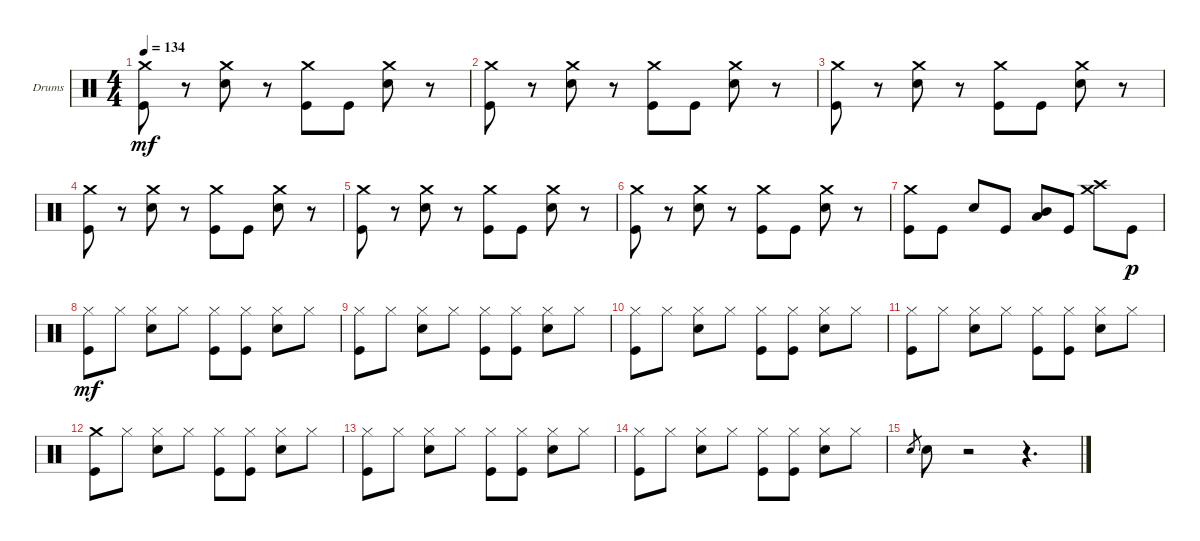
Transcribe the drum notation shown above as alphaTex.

\defaultSystemsLayout 4
\bracketExtendMode groupsimilarinstruments
\firstSystemTrackNameOrientation horizontal
\otherSystemsTrackNameOrientation horizontal
\track ("Drums" "Drums") {instrument percussion}
\staff {score}
\articulation defaults
\ts (4 4)
\tempo 134
\clef neutral
\ks c
("Kick (hit)" "Crash medium (hit)").8{dy mf} r.8 ("Snare (hit) 2" "Crash medium (hit)").8 r.8 ("Kick (hit)" "Crash medium (hit)").8 "Kick (hit)".8 ("Snare (hit) 2" "Crash medium (hit)").8 r.8 |
("Kick (hit)" "Crash medium (hit)").8 r.8 ("Snare (hit) 2" "Crash medium (hit)").8 r.8 ("Kick (hit)" "Crash medium (hit)").8 "Kick (hit)".8 ("Snare (hit) 2" "Crash medium (hit)").8 r.8 |
("Kick (hit)" "Crash medium (hit)").8 r.8 ("Snare (hit) 2" "Crash medium (hit)").8 r.8 ("Kick (hit)" "Crash medium (hit)").8 "Kick (hit)".8 ("Snare (hit) 2" "Crash medium (hit)").8 r.8 |
("Kick (hit)" "Crash medium (hit)").8 r.8 ("Snare (hit) 2" "Crash medium (hit)").8 r.8 ("Kick (hit)" "Crash medium (hit)").8 "Kick (hit)".8 ("Snare (hit) 2" "Crash medium (hit)").8 r.8 |
("Kick (hit)" "Crash medium (hit)").8 r.8 ("Snare (hit) 2" "Crash medium (hit)").8 r.8 ("Kick (hit)" "Crash medium (hit)").8 "Kick (hit)".8 ("Snare (hit) 2" "Crash medium (hit)").8 r.8 |
("Kick (hit)" "Crash medium (hit)").8 r.8 ("Snare (hit) 2" "Crash medium (hit)").8 r.8 ("Kick (hit)" "Crash medium (hit)").8 "Kick (hit)".8 ("Snare (hit) 2" "Crash medium (hit)").8 r.8 |
("Kick (hit)" "Crash medium (hit)").8 "Kick (hit)".8 "Snare (hit) 2".8 "Kick (hit)".8 ("Low Tom (hit)" "Mid Tom (hit)").8 "Kick (hit)".8 ("Crash medium (hit)" "Crash high (hit)").8 "Kick (hit)".8{dy p} |
("Hi-Hat (closed)" "Kick (hit)").8{dy mf} "Hi-Hat (closed)".8 ("Hi-Hat (closed)" "Snare (hit) 2").8 "Hi-Hat (closed)".8 ("Hi-Hat (closed)" "Kick (hit)").8 ("Hi-Hat (closed)" "Kick (hit)").8 ("Hi-Hat (closed)" "Snare (hit) 2").8 "Hi-Hat (closed)".8 |
("Hi-Hat (closed)" "Kick (hit)").8 "Hi-Hat (closed)".8 ("Hi-Hat (closed)" "Snare (hit) 2").8 "Hi-Hat (closed)".8 ("Hi-Hat (closed)" "Kick (hit)").8 ("Hi-Hat (closed)" "Kick (hit)").8 ("Hi-Hat (closed)" "Snare (hit) 2").8 "Hi-Hat (closed)".8 |
("Hi-Hat (closed)" "Kick (hit)").8 "Hi-Hat (closed)".8 ("Hi-Hat (closed)" "Snare (hit) 2").8 "Hi-Hat (closed)".8 ("Hi-Hat (closed)" "Kick (hit)").8 ("Hi-Hat (closed)" "Kick (hit)").8 ("Hi-Hat (closed)" "Snare (hit) 2").8 "Hi-Hat (closed)".8 |
("Kick (hit)" "Hi-Hat (closed)").8 "Hi-Hat (closed)".8 ("Hi-Hat (closed)" "Snare (hit) 2").8 "Hi-Hat (closed)".8 ("Hi-Hat (closed)" "Kick (hit)").8 ("Hi-Hat (closed)" "Kick (hit)").8 ("Hi-Hat (closed)" "Snare (hit) 2").8 "Hi-Hat (closed)".8 |
("Kick (hit)" "Crash medium (hit)").8 "Hi-Hat (closed)".8 ("Hi-Hat (closed)" "Snare (hit) 2").8 "Hi-Hat (closed)".8 ("Hi-Hat (closed)" "Kick (hit)").8 ("Hi-Hat (closed)" "Kick (hit)").8 ("Hi-Hat (closed)" "Snare (hit) 2").8 "Hi-Hat (closed)".8 |
("Hi-Hat (closed)" "Kick (hit)").8 "Hi-Hat (closed)".8 ("Hi-Hat (closed)" "Snare (hit) 2").8 "Hi-Hat (closed)".8 ("Hi-Hat (closed)" "Kick (hit)").8 ("Hi-Hat (closed)" "Kick (hit)").8 ("Hi-Hat (closed)" "Snare (hit) 2").8 "Hi-Hat (closed)".8 |
("Hi-Hat (closed)" "Kick (hit)").8 "Hi-Hat (closed)".8 ("Hi-Hat (closed)" "Snare (hit) 2").8 "Hi-Hat (closed)".8 ("Hi-Hat (closed)" "Kick (hit)").8 ("Hi-Hat (closed)" "Kick (hit)").8 ("Hi-Hat (closed)" "Snare (hit) 2").8 "Hi-Hat (closed)".8 |
"Snare (hit) 2".8{gr} "Snare (hit) 2".8 r.2 r.4{d}
